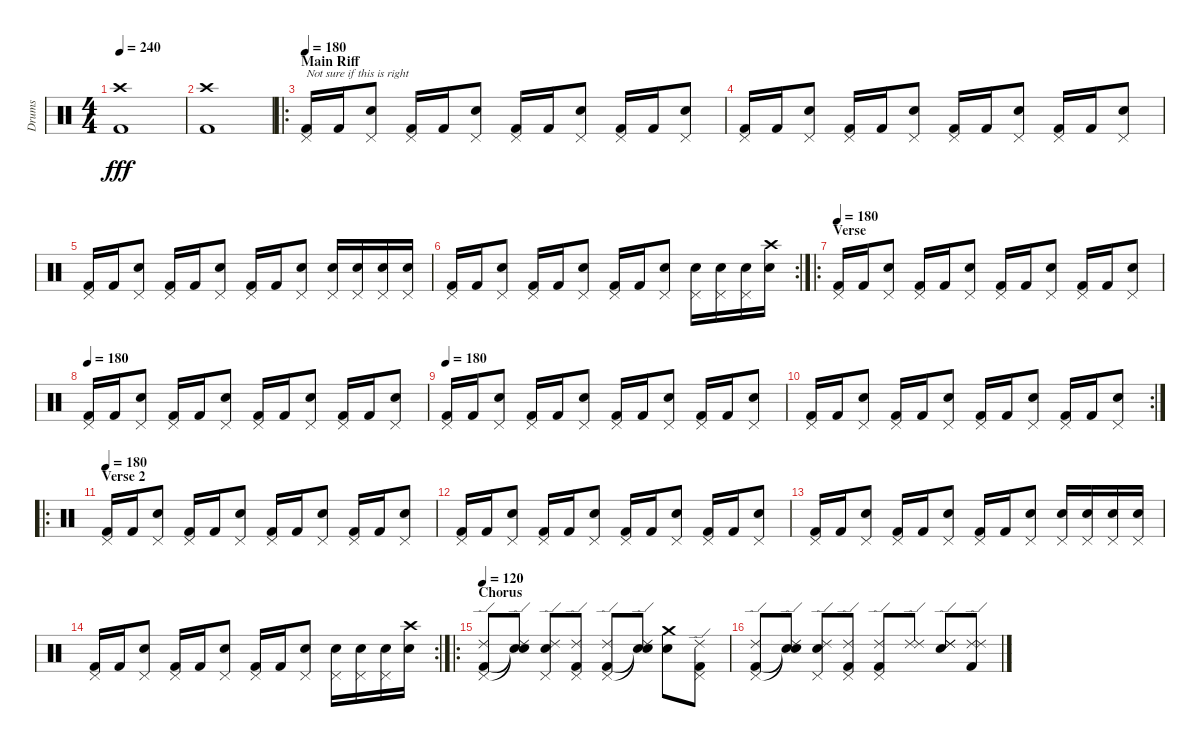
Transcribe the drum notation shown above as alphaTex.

\track ("Drums" "Drums") {instrument percussion}
\staff {score}
\articulation defaults
\ts (4 4)
\tempo 240
\clef neutral
\ks c
("Kick (hit) 2" "Crash high (hit)").1{dy fff} |
("Kick (hit) 2" "Crash high (hit)").1 |
\ro
\section ("" "Main Riff")
\tempo 180
("Kick (hit) 2" "Pedal Hi-Hat (hit)").16{txt "Not sure if this is right"} "Kick (hit) 2".16 ("Snare (hit) 2" "Pedal Hi-Hat (hit)").8 ("Kick (hit) 2" "Pedal Hi-Hat (hit)").16 "Kick (hit) 2".16 ("Snare (hit) 2" "Pedal Hi-Hat (hit)").8 ("Kick (hit) 2" "Pedal Hi-Hat (hit)").16 "Kick (hit) 2".16 ("Snare (hit) 2" "Pedal Hi-Hat (hit)").8 ("Kick (hit) 2" "Pedal Hi-Hat (hit)").16 "Kick (hit) 2".16 ("Snare (hit) 2" "Pedal Hi-Hat (hit)").8 |
("Kick (hit) 2" "Pedal Hi-Hat (hit)").16 "Kick (hit) 2".16 ("Snare (hit) 2" "Pedal Hi-Hat (hit)").8 ("Kick (hit) 2" "Pedal Hi-Hat (hit)").16 "Kick (hit) 2".16 ("Snare (hit) 2" "Pedal Hi-Hat (hit)").8 ("Kick (hit) 2" "Pedal Hi-Hat (hit)").16 "Kick (hit) 2".16 ("Snare (hit) 2" "Pedal Hi-Hat (hit)").8 ("Kick (hit) 2" "Pedal Hi-Hat (hit)").16 "Kick (hit) 2".16 ("Snare (hit) 2" "Pedal Hi-Hat (hit)").8 |
("Kick (hit) 2" "Pedal Hi-Hat (hit)").16 "Kick (hit) 2".16 ("Snare (hit) 2" "Pedal Hi-Hat (hit)").8 ("Kick (hit) 2" "Pedal Hi-Hat (hit)").16 "Kick (hit) 2".16 ("Snare (hit) 2" "Pedal Hi-Hat (hit)").8 ("Kick (hit) 2" "Pedal Hi-Hat (hit)").16 "Kick (hit) 2".16 ("Snare (hit) 2" "Pedal Hi-Hat (hit)").8 ("Snare (hit) 2" "Pedal Hi-Hat (hit)").16 ("Snare (hit) 2" "Pedal Hi-Hat (hit)").16 ("Snare (hit) 2" "Pedal Hi-Hat (hit)").16 ("Snare (hit) 2" "Pedal Hi-Hat (hit)").16 |
\rc 2
("Kick (hit) 2" "Pedal Hi-Hat (hit)").16 "Kick (hit) 2".16 ("Snare (hit) 2" "Pedal Hi-Hat (hit)").8 ("Kick (hit) 2" "Pedal Hi-Hat (hit)").16 "Kick (hit) 2".16 ("Snare (hit) 2" "Pedal Hi-Hat (hit)").8 ("Kick (hit) 2" "Pedal Hi-Hat (hit)").16 "Kick (hit) 2".16 ("Snare (hit) 2" "Pedal Hi-Hat (hit)").8 ("Snare (hit) 2" "Pedal Hi-Hat (hit)").16 ("Snare (hit) 2" "Pedal Hi-Hat (hit)").16 ("Snare (hit) 2" "Pedal Hi-Hat (hit)").16 ("Snare (hit) 2" "Crash high (hit)").16 |
\ro
\section ("" "Verse")
\tempo 180
("Kick (hit) 2" "Pedal Hi-Hat (hit)").16 "Kick (hit) 2".16 ("Snare (hit) 2" "Pedal Hi-Hat (hit)").8 ("Kick (hit) 2" "Pedal Hi-Hat (hit)").16 "Kick (hit) 2".16 ("Snare (hit) 2" "Pedal Hi-Hat (hit)").8 ("Kick (hit) 2" "Pedal Hi-Hat (hit)").16 "Kick (hit) 2".16 ("Snare (hit) 2" "Pedal Hi-Hat (hit)").8 ("Kick (hit) 2" "Pedal Hi-Hat (hit)").16 "Kick (hit) 2".16 ("Snare (hit) 2" "Pedal Hi-Hat (hit)").8 |
\tempo 180
("Kick (hit) 2" "Pedal Hi-Hat (hit)").16 "Kick (hit) 2".16 ("Snare (hit) 2" "Pedal Hi-Hat (hit)").8 ("Kick (hit) 2" "Pedal Hi-Hat (hit)").16 "Kick (hit) 2".16 ("Snare (hit) 2" "Pedal Hi-Hat (hit)").8 ("Kick (hit) 2" "Pedal Hi-Hat (hit)").16 "Kick (hit) 2".16 ("Snare (hit) 2" "Pedal Hi-Hat (hit)").8 ("Kick (hit) 2" "Pedal Hi-Hat (hit)").16 "Kick (hit) 2".16 ("Snare (hit) 2" "Pedal Hi-Hat (hit)").8 |
\tempo 180
("Kick (hit) 2" "Pedal Hi-Hat (hit)").16 "Kick (hit) 2".16 ("Snare (hit) 2" "Pedal Hi-Hat (hit)").8 ("Kick (hit) 2" "Pedal Hi-Hat (hit)").16 "Kick (hit) 2".16 ("Snare (hit) 2" "Pedal Hi-Hat (hit)").8 ("Kick (hit) 2" "Pedal Hi-Hat (hit)").16 "Kick (hit) 2".16 ("Snare (hit) 2" "Pedal Hi-Hat (hit)").8 ("Kick (hit) 2" "Pedal Hi-Hat (hit)").16 "Kick (hit) 2".16 ("Snare (hit) 2" "Pedal Hi-Hat (hit)").8 |
\rc 2
("Kick (hit) 2" "Pedal Hi-Hat (hit)").16 "Kick (hit) 2".16 ("Snare (hit) 2" "Pedal Hi-Hat (hit)").8 ("Kick (hit) 2" "Pedal Hi-Hat (hit)").16 "Kick (hit) 2".16 ("Snare (hit) 2" "Pedal Hi-Hat (hit)").8 ("Kick (hit) 2" "Pedal Hi-Hat (hit)").16 "Kick (hit) 2".16 ("Snare (hit) 2" "Pedal Hi-Hat (hit)").8 ("Kick (hit) 2" "Pedal Hi-Hat (hit)").16 "Kick (hit) 2".16 ("Snare (hit) 2" "Pedal Hi-Hat (hit)").8 |
\ro
\section ("" "Verse 2")
\tempo 180
("Kick (hit) 2" "Pedal Hi-Hat (hit)").16 "Kick (hit) 2".16 ("Snare (hit) 2" "Pedal Hi-Hat (hit)").8 ("Kick (hit) 2" "Pedal Hi-Hat (hit)").16 "Kick (hit) 2".16 ("Snare (hit) 2" "Pedal Hi-Hat (hit)").8 ("Kick (hit) 2" "Pedal Hi-Hat (hit)").16 "Kick (hit) 2".16 ("Snare (hit) 2" "Pedal Hi-Hat (hit)").8 ("Kick (hit) 2" "Pedal Hi-Hat (hit)").16 "Kick (hit) 2".16 ("Snare (hit) 2" "Pedal Hi-Hat (hit)").8 |
("Kick (hit) 2" "Pedal Hi-Hat (hit)").16 "Kick (hit) 2".16 ("Snare (hit) 2" "Pedal Hi-Hat (hit)").8 ("Kick (hit) 2" "Pedal Hi-Hat (hit)").16 "Kick (hit) 2".16 ("Snare (hit) 2" "Pedal Hi-Hat (hit)").8 ("Kick (hit) 2" "Pedal Hi-Hat (hit)").16 "Kick (hit) 2".16 ("Snare (hit) 2" "Pedal Hi-Hat (hit)").8 ("Kick (hit) 2" "Pedal Hi-Hat (hit)").16 "Kick (hit) 2".16 ("Snare (hit) 2" "Pedal Hi-Hat (hit)").8 |
("Kick (hit) 2" "Pedal Hi-Hat (hit)").16 "Kick (hit) 2".16 ("Snare (hit) 2" "Pedal Hi-Hat (hit)").8 ("Kick (hit) 2" "Pedal Hi-Hat (hit)").16 "Kick (hit) 2".16 ("Snare (hit) 2" "Pedal Hi-Hat (hit)").8 ("Kick (hit) 2" "Pedal Hi-Hat (hit)").16 "Kick (hit) 2".16 ("Snare (hit) 2" "Pedal Hi-Hat (hit)").8 ("Snare (hit) 2" "Pedal Hi-Hat (hit)").16 ("Snare (hit) 2" "Pedal Hi-Hat (hit)").16 ("Snare (hit) 2" "Pedal Hi-Hat (hit)").16 ("Snare (hit) 2" "Pedal Hi-Hat (hit)").16 |
\rc 2
("Kick (hit) 2" "Pedal Hi-Hat (hit)").16 "Kick (hit) 2".16 ("Snare (hit) 2" "Pedal Hi-Hat (hit)").8 ("Kick (hit) 2" "Pedal Hi-Hat (hit)").16 "Kick (hit) 2".16 ("Snare (hit) 2" "Pedal Hi-Hat (hit)").8 ("Kick (hit) 2" "Pedal Hi-Hat (hit)").16 "Kick (hit) 2".16 ("Snare (hit) 2" "Pedal Hi-Hat (hit)").8 ("Snare (hit) 2" "Pedal Hi-Hat (hit)").16 ("Snare (hit) 2" "Pedal Hi-Hat (hit)").16 ("Snare (hit) 2" "Pedal Hi-Hat (hit)").16 ("Snare (hit) 2" "Crash high (hit)").16 |
\ro
\section ("" "Chorus")
\tempo 120
("Kick (hit) 2" "Pedal Hi-Hat (hit)" "Ride (edge) 2").8 ("Snare (hit) 2"{t} "Snare (hit)"{t} "Ride (edge) 2").8 ("Snare (hit) 2" "Pedal Hi-Hat (hit)" "Ride (edge) 2").8 ("Kick (hit) 2" "Pedal Hi-Hat (hit)" "Ride (edge) 2").8 ("Kick (hit) 2" "Pedal Hi-Hat (hit)" "Ride (edge) 2").8 ("Snare (hit) 2"{t} "Snare (hit)"{t} "Ride (edge) 2").8 ("Snare (hit) 2" "Crash medium (hit)").8 ("Kick (hit) 2" "Pedal Hi-Hat (hit)" "Ride (edge) 2").8 |
("Kick (hit) 2" "Pedal Hi-Hat (hit)" "Ride (edge) 2").8 ("Snare (hit) 2"{t} "Snare (hit)"{t} "Ride (edge) 2").8 ("Snare (hit) 2" "Pedal Hi-Hat (hit)" "Ride (edge) 2").8 ("Kick (hit) 2" "Pedal Hi-Hat (hit)" "Ride (edge) 2").8 ("Kick (hit) 2" "Pedal Hi-Hat (hit)" "Ride (edge) 2").8 ("Ride (edge) 2" "Ride (edge) 2").8 ("Snare (hit) 2" "Ride (edge) 2" "Ride (edge) 2").8 ("Kick (hit) 2" "Ride (edge) 2" "Ride (edge) 2").8
